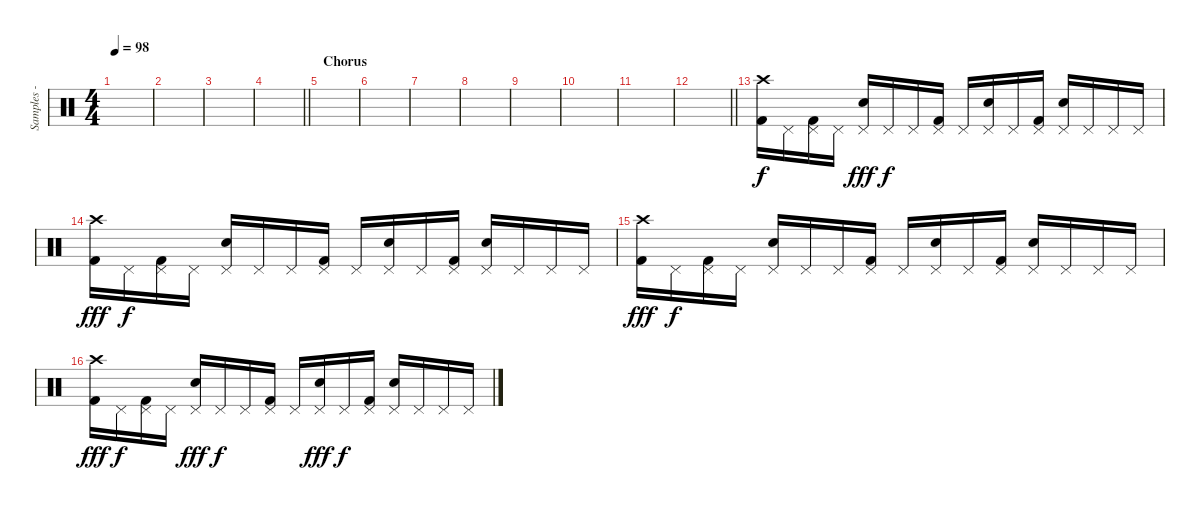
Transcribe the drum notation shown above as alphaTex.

\track ("Samples - Joe Hahn" "Samples - ") {instrument percussion}
\staff {score}
\articulation defaults
\ts (4 4)
\tempo 98
\clef neutral
\ks c
|
|
|
\barLineRight lightlight
|
\section ("" "Chorus")
|
|
|
|
|
|
|
\barLineRight lightlight
|
("Crash high (hit)" "Kick (hit) 2").16{volume 14} "Pedal Hi-Hat (hit)".16{volume 5} ("Pedal Hi-Hat (hit)" "Kick (hit) 2").16 "Pedal Hi-Hat (hit)".16 ("Pedal Hi-Hat (hit)" "Snare (hit) 2").16{dy fff} "Pedal Hi-Hat (hit)".16{dy f} "Pedal Hi-Hat (hit)".16 ("Pedal Hi-Hat (hit)" "Kick (hit) 2").16 "Pedal Hi-Hat (hit)".16 ("Pedal Hi-Hat (hit)" "Snare (hit) 2").16 "Pedal Hi-Hat (hit)".16 ("Pedal Hi-Hat (hit)" "Kick (hit) 2").16 ("Pedal Hi-Hat (hit)" "Snare (hit) 2").16 "Pedal Hi-Hat (hit)".16 "Pedal Hi-Hat (hit)".16 "Pedal Hi-Hat (hit)".16 |
("Crash high (hit)" "Kick (hit) 2").16{dy fff volume 4} "Pedal Hi-Hat (hit)".16{dy f} ("Pedal Hi-Hat (hit)" "Kick (hit) 2").16 "Pedal Hi-Hat (hit)".16 ("Pedal Hi-Hat (hit)" "Snare (hit) 2").16 "Pedal Hi-Hat (hit)".16 "Pedal Hi-Hat (hit)".16 ("Pedal Hi-Hat (hit)" "Kick (hit) 2").16 "Pedal Hi-Hat (hit)".16 ("Pedal Hi-Hat (hit)" "Snare (hit) 2").16 "Pedal Hi-Hat (hit)".16 ("Pedal Hi-Hat (hit)" "Kick (hit) 2").16 ("Pedal Hi-Hat (hit)" "Snare (hit) 2").16 "Pedal Hi-Hat (hit)".16 "Pedal Hi-Hat (hit)".16 "Pedal Hi-Hat (hit)".16 |
("Crash high (hit)" "Kick (hit) 2").16{dy fff volume 3} "Pedal Hi-Hat (hit)".16{dy f} ("Pedal Hi-Hat (hit)" "Kick (hit) 2").16 "Pedal Hi-Hat (hit)".16 ("Pedal Hi-Hat (hit)" "Snare (hit) 2").16 "Pedal Hi-Hat (hit)".16 "Pedal Hi-Hat (hit)".16 ("Pedal Hi-Hat (hit)" "Kick (hit) 2").16 "Pedal Hi-Hat (hit)".16 ("Pedal Hi-Hat (hit)" "Snare (hit) 2").16 "Pedal Hi-Hat (hit)".16 ("Pedal Hi-Hat (hit)" "Kick (hit) 2").16 ("Pedal Hi-Hat (hit)" "Snare (hit) 2").16 "Pedal Hi-Hat (hit)".16 "Pedal Hi-Hat (hit)".16 "Pedal Hi-Hat (hit)".16 |
("Crash high (hit)" "Kick (hit) 2").16{dy fff volume 3} "Pedal Hi-Hat (hit)".16{dy f} ("Pedal Hi-Hat (hit)" "Kick (hit) 2").16 "Pedal Hi-Hat (hit)".16 ("Pedal Hi-Hat (hit)" "Snare (hit) 2").16{dy fff} "Pedal Hi-Hat (hit)".16{dy f} "Pedal Hi-Hat (hit)".16 ("Pedal Hi-Hat (hit)" "Kick (hit) 2").16 "Pedal Hi-Hat (hit)".16 ("Pedal Hi-Hat (hit)" "Snare (hit) 2").16{dy fff} "Pedal Hi-Hat (hit)".16{dy f} ("Pedal Hi-Hat (hit)" "Kick (hit) 2").16 ("Pedal Hi-Hat (hit)" "Snare (hit) 2").16 "Pedal Hi-Hat (hit)".16 "Pedal Hi-Hat (hit)".16 "Pedal Hi-Hat (hit)".16
